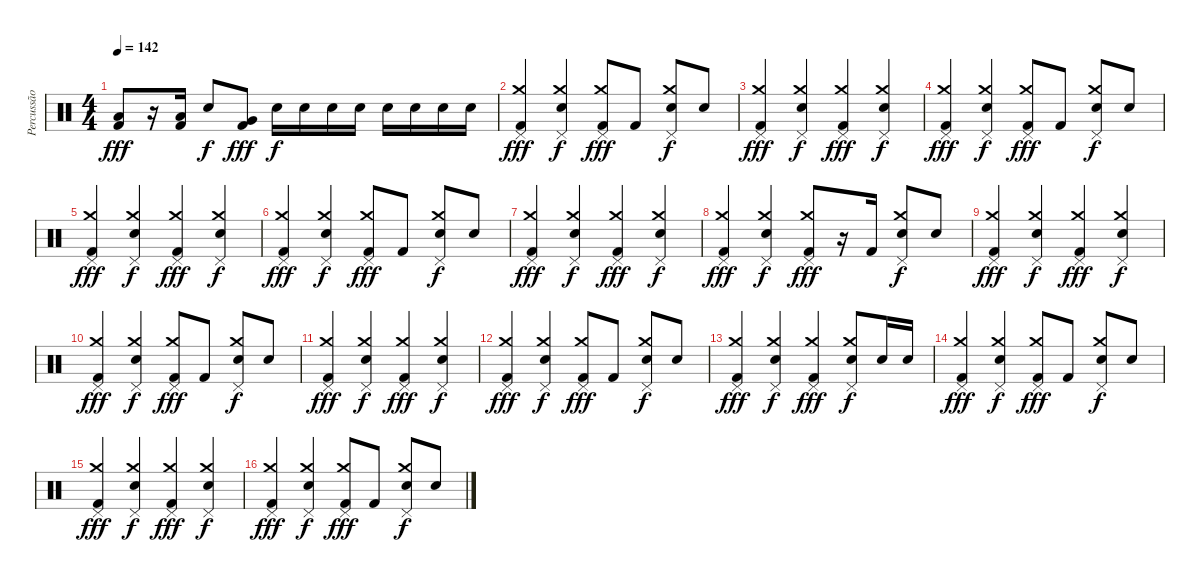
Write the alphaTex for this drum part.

\track ("Percussão" "Percussão") {instrument percussion}
\staff {score}
\articulation defaults
\ts (4 4)
\tempo 142
\clef neutral
\ks c
("Low Tom (hit)" "Kick (hit) 2").8{dy fff} r.16 ("Low Tom (hit)" "Kick (hit) 2").16 "Electric Snare (hit)".8{dy f} ("Very Low Tom (hit)" "Kick (hit) 2").8{dy fff} "Electric Snare (hit)".16{dy f} "Electric Snare (hit)".16 "Electric Snare (hit)".16 "Electric Snare (hit)".16 "Electric Snare (hit)".16 "Electric Snare (hit)".16 "Electric Snare (hit)".16 "Electric Snare (hit)".16 |
("Crash medium (hit)" "Pedal Hi-Hat (hit)" "Kick (hit) 2").4{dy fff} ("Crash medium (hit)" "Pedal Hi-Hat (hit)" "Electric Snare (hit)").4{dy f} ("Crash medium (hit)" "Pedal Hi-Hat (hit)" "Kick (hit) 2").8{dy fff} "Kick (hit) 2".8 ("Crash medium (hit)" "Pedal Hi-Hat (hit)" "Electric Snare (hit)").8{dy f} "Electric Snare (hit)".8 |
("Crash medium (hit)" "Pedal Hi-Hat (hit)" "Kick (hit) 2").4{dy fff} ("Crash medium (hit)" "Pedal Hi-Hat (hit)" "Electric Snare (hit)").4{dy f} ("Crash medium (hit)" "Pedal Hi-Hat (hit)" "Kick (hit) 2").4{dy fff} ("Crash medium (hit)" "Pedal Hi-Hat (hit)" "Electric Snare (hit)").4{dy f} |
("Crash medium (hit)" "Pedal Hi-Hat (hit)" "Kick (hit) 2").4{dy fff} ("Crash medium (hit)" "Pedal Hi-Hat (hit)" "Electric Snare (hit)").4{dy f} ("Crash medium (hit)" "Pedal Hi-Hat (hit)" "Kick (hit) 2").8{dy fff} "Kick (hit) 2".8 ("Crash medium (hit)" "Pedal Hi-Hat (hit)" "Electric Snare (hit)").8{dy f} "Electric Snare (hit)".8 |
("Crash medium (hit)" "Pedal Hi-Hat (hit)" "Kick (hit) 2").4{dy fff} ("Crash medium (hit)" "Pedal Hi-Hat (hit)" "Electric Snare (hit)").4{dy f} ("Crash medium (hit)" "Pedal Hi-Hat (hit)" "Kick (hit) 2").4{dy fff} ("Crash medium (hit)" "Pedal Hi-Hat (hit)" "Electric Snare (hit)").4{dy f} |
("Crash medium (hit)" "Pedal Hi-Hat (hit)" "Kick (hit) 2").4{dy fff} ("Crash medium (hit)" "Pedal Hi-Hat (hit)" "Electric Snare (hit)").4{dy f} ("Crash medium (hit)" "Pedal Hi-Hat (hit)" "Kick (hit) 2").8{dy fff} "Kick (hit) 2".8 ("Crash medium (hit)" "Pedal Hi-Hat (hit)" "Electric Snare (hit)").8{dy f} "Electric Snare (hit)".8 |
("Crash medium (hit)" "Pedal Hi-Hat (hit)" "Kick (hit) 2").4{dy fff} ("Crash medium (hit)" "Pedal Hi-Hat (hit)" "Electric Snare (hit)").4{dy f} ("Crash medium (hit)" "Pedal Hi-Hat (hit)" "Kick (hit) 2").4{dy fff} ("Crash medium (hit)" "Pedal Hi-Hat (hit)" "Electric Snare (hit)").4{dy f} |
("Crash medium (hit)" "Pedal Hi-Hat (hit)" "Kick (hit) 2").4{dy fff} ("Crash medium (hit)" "Pedal Hi-Hat (hit)" "Electric Snare (hit)").4{dy f} ("Crash medium (hit)" "Pedal Hi-Hat (hit)" "Kick (hit) 2").8{dy fff} r.16 "Kick (hit) 2".16 ("Crash medium (hit)" "Pedal Hi-Hat (hit)" "Electric Snare (hit)").8{dy f} "Electric Snare (hit)".8 |
("Crash medium (hit)" "Pedal Hi-Hat (hit)" "Kick (hit) 2").4{dy fff} ("Crash medium (hit)" "Pedal Hi-Hat (hit)" "Electric Snare (hit)").4{dy f} ("Crash medium (hit)" "Pedal Hi-Hat (hit)" "Kick (hit) 2").4{dy fff} ("Crash medium (hit)" "Pedal Hi-Hat (hit)" "Electric Snare (hit)").4{dy f} |
("Crash medium (hit)" "Pedal Hi-Hat (hit)" "Kick (hit) 2").4{dy fff} ("Crash medium (hit)" "Pedal Hi-Hat (hit)" "Electric Snare (hit)").4{dy f} ("Crash medium (hit)" "Pedal Hi-Hat (hit)" "Kick (hit) 2").8{dy fff} "Kick (hit) 2".8 ("Crash medium (hit)" "Pedal Hi-Hat (hit)" "Electric Snare (hit)").8{dy f} "Electric Snare (hit)".8 |
("Crash medium (hit)" "Pedal Hi-Hat (hit)" "Kick (hit) 2").4{dy fff} ("Crash medium (hit)" "Pedal Hi-Hat (hit)" "Electric Snare (hit)").4{dy f} ("Crash medium (hit)" "Pedal Hi-Hat (hit)" "Kick (hit) 2").4{dy fff} ("Crash medium (hit)" "Pedal Hi-Hat (hit)" "Electric Snare (hit)").4{dy f} |
("Crash medium (hit)" "Pedal Hi-Hat (hit)" "Kick (hit) 2").4{dy fff} ("Crash medium (hit)" "Pedal Hi-Hat (hit)" "Electric Snare (hit)").4{dy f} ("Crash medium (hit)" "Pedal Hi-Hat (hit)" "Kick (hit) 2").8{dy fff} "Kick (hit) 2".8 ("Crash medium (hit)" "Pedal Hi-Hat (hit)" "Electric Snare (hit)").8{dy f} "Electric Snare (hit)".8 |
("Crash medium (hit)" "Pedal Hi-Hat (hit)" "Kick (hit) 2").4{dy fff} ("Crash medium (hit)" "Pedal Hi-Hat (hit)" "Electric Snare (hit)").4{dy f} ("Crash medium (hit)" "Pedal Hi-Hat (hit)" "Kick (hit) 2").4{dy fff} ("Crash medium (hit)" "Pedal Hi-Hat (hit)" "Electric Snare (hit)").8{dy f} "Electric Snare (hit)".16 "Electric Snare (hit)".16 |
("Crash medium (hit)" "Pedal Hi-Hat (hit)" "Kick (hit) 2").4{dy fff} ("Crash medium (hit)" "Pedal Hi-Hat (hit)" "Electric Snare (hit)").4{dy f} ("Crash medium (hit)" "Pedal Hi-Hat (hit)" "Kick (hit) 2").8{dy fff} "Kick (hit) 2".8 ("Crash medium (hit)" "Pedal Hi-Hat (hit)" "Electric Snare (hit)").8{dy f} "Electric Snare (hit)".8 |
("Crash medium (hit)" "Pedal Hi-Hat (hit)" "Kick (hit) 2").4{dy fff} ("Crash medium (hit)" "Pedal Hi-Hat (hit)" "Electric Snare (hit)").4{dy f} ("Crash medium (hit)" "Pedal Hi-Hat (hit)" "Kick (hit) 2").4{dy fff} ("Crash medium (hit)" "Pedal Hi-Hat (hit)" "Electric Snare (hit)").4{dy f} |
("Crash medium (hit)" "Pedal Hi-Hat (hit)" "Kick (hit) 2").4{dy fff} ("Crash medium (hit)" "Pedal Hi-Hat (hit)" "Electric Snare (hit)").4{dy f} ("Crash medium (hit)" "Pedal Hi-Hat (hit)" "Kick (hit) 2").8{dy fff} "Kick (hit) 2".8 ("Crash medium (hit)" "Pedal Hi-Hat (hit)" "Electric Snare (hit)").8{dy f} "Electric Snare (hit)".8
